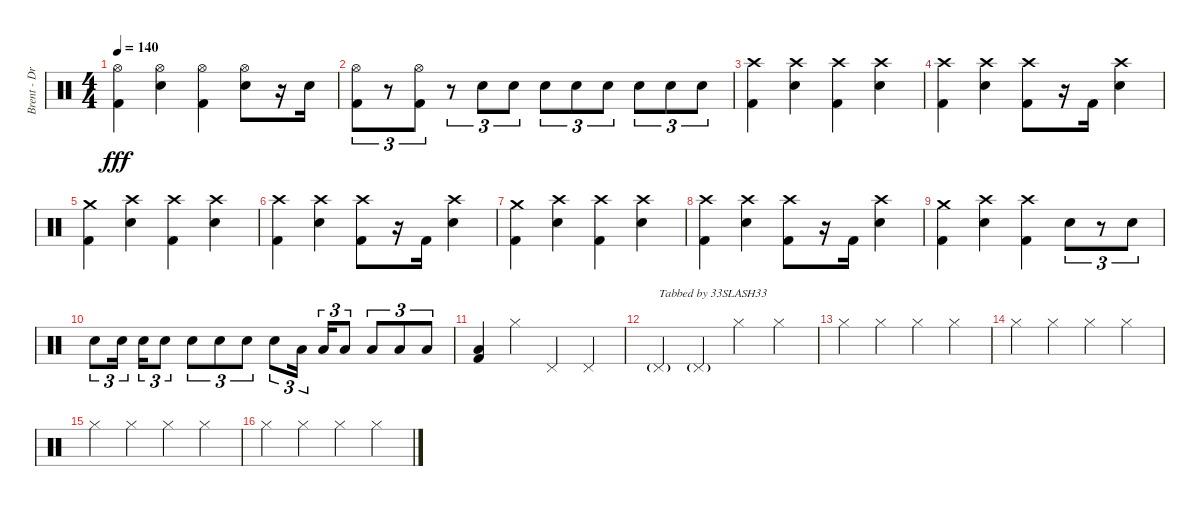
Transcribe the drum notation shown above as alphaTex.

\track ("Brent - Drums" "Brent - Dr") {instrument percussion}
\staff {score}
\articulation defaults
\ts (4 4)
\tempo 140
\clef neutral
\ks c
("Hi-Hat (open)" "Kick (hit) 2").4{dy fff} ("Hi-Hat (open)" "Snare (hit) 2").4 ("Hi-Hat (open)" "Kick (hit) 2").4 ("Hi-Hat (open)" "Snare (hit) 2").8 r.16 "Snare (hit) 2".16 |
("Hi-Hat (open)" "Kick (hit) 2").8{tu (3 2)} r.8{tu (3 2)} ("Hi-Hat (open)" "Kick (hit) 2").8{tu (3 2)} r.8{tu (3 2)} "Snare (hit) 2".8{tu (3 2)} "Snare (hit) 2".8{tu (3 2)} "Snare (hit) 2".8{tu (3 2)} "Snare (hit) 2".8{tu (3 2)} "Snare (hit) 2".8{tu (3 2)} "Snare (hit) 2".8{tu (3 2)} "Snare (hit) 2".8{tu (3 2)} "Snare (hit) 2".8{tu (3 2)} |
("Crash high (hit)" "Kick (hit) 2").4 ("Crash high (hit)" "Snare (hit) 2").4 ("Crash high (hit)" "Kick (hit) 2").4 ("Crash high (hit)" "Snare (hit) 2").4 |
("Crash high (hit)" "Kick (hit) 2").4 ("Crash high (hit)" "Snare (hit) 2").4 ("Crash high (hit)" "Kick (hit) 2").8 r.16 "Kick (hit) 2".16 ("Crash high (hit)" "Snare (hit) 2").4 |
("Crash medium (hit)" "Kick (hit) 2").4 ("Crash high (hit)" "Snare (hit) 2").4 ("Crash high (hit)" "Kick (hit) 2").4 ("Crash high (hit)" "Snare (hit) 2").4 |
("Crash high (hit)" "Kick (hit) 2").4 ("Crash high (hit)" "Snare (hit) 2").4 ("Crash high (hit)" "Kick (hit) 2").8 r.16 "Kick (hit) 2".16 ("Crash high (hit)" "Snare (hit) 2").4 |
("Crash medium (hit)" "Kick (hit) 2").4 ("Crash high (hit)" "Snare (hit) 2").4 ("Crash high (hit)" "Kick (hit) 2").4 ("Crash high (hit)" "Snare (hit) 2").4 |
("Crash high (hit)" "Kick (hit) 2").4 ("Crash high (hit)" "Snare (hit) 2").4 ("Crash high (hit)" "Kick (hit) 2").8 r.16 "Kick (hit) 2".16 ("Crash high (hit)" "Snare (hit) 2").4 |
("Crash medium (hit)" "Kick (hit) 2").4 ("Crash high (hit)" "Snare (hit) 2").4 ("Crash high (hit)" "Kick (hit) 2").4 "Snare (hit) 2".8{tu (3 2)} r.8{tu (3 2)} "Snare (hit) 2".8{tu (3 2)} |
"Snare (hit) 2".8{tu (3 2)} "Snare (hit) 2".16{tu (3 2) beam splitsecondary} "Snare (hit) 2".16{tu (3 2)} "Snare (hit) 2".8{tu (3 2)} "Snare (hit) 2".8{tu (3 2)} "Snare (hit) 2".8{tu (3 2)} "Snare (hit) 2".8{tu (3 2)} "Snare (hit) 2".8{tu (3 2)} "Low Tom (hit)".16{tu (3 2) beam splitsecondary} "Low Tom (hit)".16{tu (3 2)} "Low Tom (hit)".8{tu (3 2)} "Low Tom (hit)".8{tu (3 2)} "Low Tom (hit)".8{tu (3 2)} "Low Floor Tom (hit)".8{tu (3 2)} |
("Low Floor Tom (hit)" "Kick (hit) 2").4 "Hi-Hat (closed)".4 "Pedal Hi-Hat (hit)".4 "Pedal Hi-Hat (hit)".4 |
"Pedal Hi-Hat (hit)"{g}.4{txt "Tabbed by 33SLASH33"} "Pedal Hi-Hat (hit)"{g}.4 "Hi-Hat (closed)".4 "Hi-Hat (closed)".4 |
"Hi-Hat (closed)".4 "Hi-Hat (closed)".4 "Hi-Hat (closed)".4 "Hi-Hat (closed)".4 |
"Hi-Hat (closed)".4 "Hi-Hat (closed)".4 "Hi-Hat (closed)".4 "Hi-Hat (closed)".4 |
"Hi-Hat (closed)".4 "Hi-Hat (closed)".4 "Hi-Hat (closed)".4 "Hi-Hat (closed)".4 |
"Hi-Hat (closed)".4 "Hi-Hat (closed)".4 "Hi-Hat (closed)".4 "Hi-Hat (closed)".4
